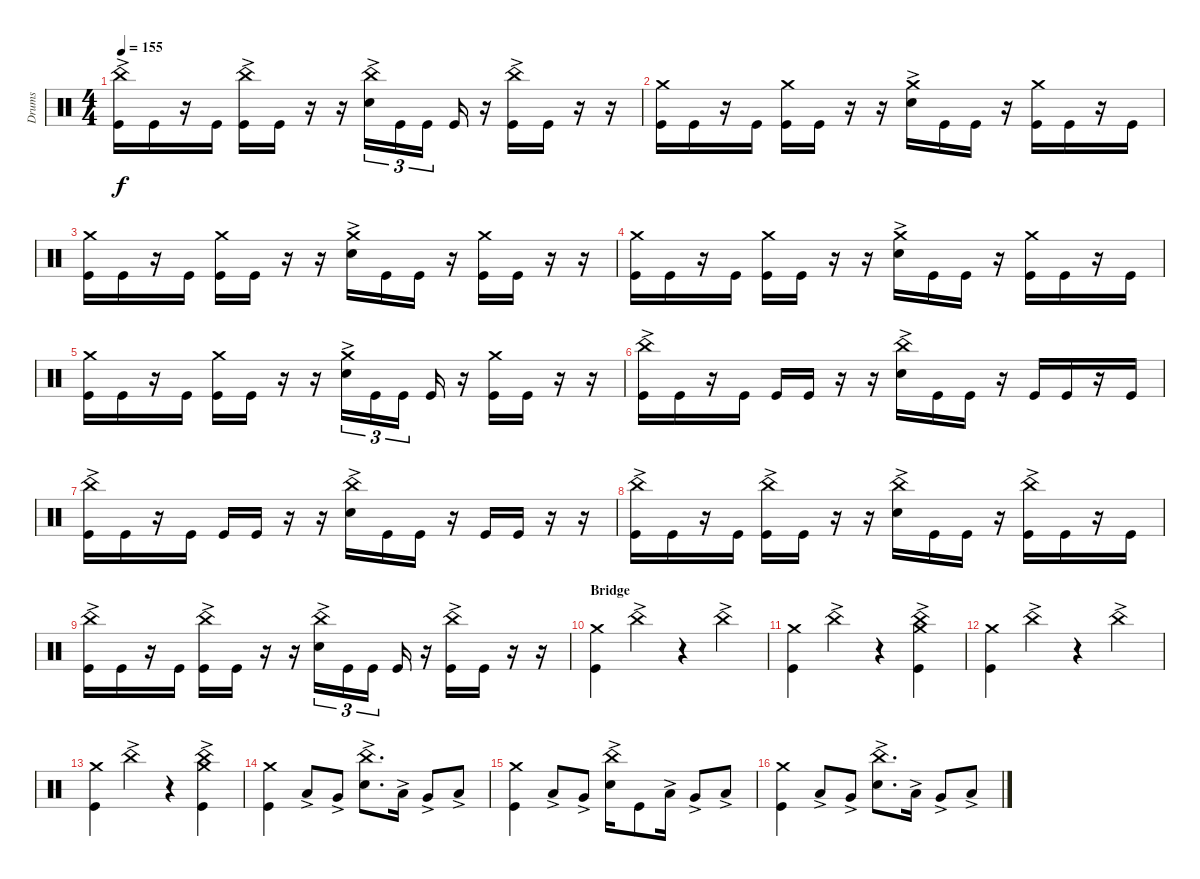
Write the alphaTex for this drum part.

\track ("Drums" "Drums") {instrument percussion}
\staff {score}
\articulation defaults
\ts (4 4)
\tempo 155
\clef neutral
\ks c
("Kick (hit)" "China (hit)"{ac}).16{dy f} "Kick (hit)".16 r.16 "Kick (hit)".16 ("Kick (hit)" "China (hit)"{ac}).16 "Kick (hit)".16 r.16 r.16 ("Snare (hit) 2"{ac} "China (hit)"{ac}).16{tu (3 2)} "Kick (hit)".16{tu (3 2)} "Kick (hit)".16{tu (3 2)} "Kick (hit)".16 r.16 ("Kick (hit)" "China (hit)"{ac}).16 "Kick (hit)".16 r.16 r.16 |
("Crash medium (hit)" "Kick (hit)").16 "Kick (hit)".16 r.16 "Kick (hit)".16 ("Crash medium (hit)" "Kick (hit)").16 "Kick (hit)".16 r.16 r.16 ("Crash medium (hit)" "Snare (hit) 2"{ac}).16 "Kick (hit)".16 "Kick (hit)".16 r.16 ("Crash medium (hit)" "Kick (hit)").16 "Kick (hit)".16 r.16 "Kick (hit)".16 |
("Crash medium (hit)" "Kick (hit)").16 "Kick (hit)".16 r.16 "Kick (hit)".16 ("Crash medium (hit)" "Kick (hit)").16 "Kick (hit)".16 r.16 r.16 ("Crash medium (hit)" "Snare (hit) 2"{ac}).16 "Kick (hit)".16 "Kick (hit)".16 r.16 ("Crash medium (hit)" "Kick (hit)").16 "Kick (hit)".16 r.16 r.16 |
("Crash medium (hit)" "Kick (hit)").16 "Kick (hit)".16 r.16 "Kick (hit)".16 ("Crash medium (hit)" "Kick (hit)").16 "Kick (hit)".16 r.16 r.16 ("Crash medium (hit)" "Snare (hit) 2"{ac}).16 "Kick (hit)".16 "Kick (hit)".16 r.16 ("Crash medium (hit)" "Kick (hit)").16 "Kick (hit)".16 r.16 "Kick (hit)".16 |
("Crash medium (hit)" "Kick (hit)").16 "Kick (hit)".16 r.16 "Kick (hit)".16 ("Crash medium (hit)" "Kick (hit)").16 "Kick (hit)".16 r.16 r.16 ("Crash medium (hit)" "Snare (hit) 2"{ac}).16{tu (3 2)} "Kick (hit)".16{tu (3 2)} "Kick (hit)".16{tu (3 2)} "Kick (hit)".16 r.16 ("Kick (hit)" "Crash medium (hit)").16 "Kick (hit)".16 r.16 r.16 |
("Kick (hit)" "China (hit)"{ac}).16 "Kick (hit)".16 r.16 "Kick (hit)".16 "Kick (hit)".16 "Kick (hit)".16 r.16 r.16 ("Snare (hit) 2"{ac} "China (hit)"{ac}).16 "Kick (hit)".16 "Kick (hit)".16 r.16 "Kick (hit)".16 "Kick (hit)".16 r.16 "Kick (hit)".16 |
("Kick (hit)" "China (hit)"{ac}).16 "Kick (hit)".16 r.16 "Kick (hit)".16 "Kick (hit)".16 "Kick (hit)".16 r.16 r.16 ("Snare (hit) 2"{ac} "China (hit)"{ac}).16 "Kick (hit)".16 "Kick (hit)".16 r.16 "Kick (hit)".16 "Kick (hit)".16 r.16 r.16 |
("Kick (hit)" "China (hit)"{ac}).16 "Kick (hit)".16 r.16 "Kick (hit)".16 ("Kick (hit)" "China (hit)"{ac}).16 "Kick (hit)".16 r.16 r.16 ("Snare (hit) 2"{ac} "China (hit)"{ac}).16 "Kick (hit)".16 "Kick (hit)".16 r.16 ("Kick (hit)" "China (hit)"{ac}).16 "Kick (hit)".16 r.16 "Kick (hit)".16 |
("Kick (hit)" "China (hit)"{ac}).16 "Kick (hit)".16 r.16 "Kick (hit)".16 ("Kick (hit)" "China (hit)"{ac}).16 "Kick (hit)".16 r.16 r.16 ("Snare (hit) 2"{ac} "China (hit)"{ac}).16{tu (3 2)} "Kick (hit)".16{tu (3 2)} "Kick (hit)".16{tu (3 2)} "Kick (hit)".16 r.16 ("Kick (hit)" "China (hit)"{ac}).16 "Kick (hit)".16 r.16 r.16 |
\section ("" "Bridge")
("Kick (hit)" "Crash medium (hit)").4 "China (hit)"{ac}.4 r.4 "China (hit)"{ac}.4 |
("Crash medium (hit)" "Kick (hit)").4 "China (hit)"{ac}.4 r.4 ("China (hit)"{ac} "Kick (hit)" "Crash medium (hit)").4 |
("Crash medium (hit)" "Kick (hit)").4 "China (hit)"{ac}.4 r.4 "China (hit)"{ac}.4 |
("Crash medium (hit)" "Kick (hit)").4 "China (hit)"{ac}.4 r.4 ("China (hit)"{ac} "Kick (hit)" "Crash medium (hit)").4 |
("Kick (hit)" "Crash medium (hit)").4 "Low Tom (hit)"{ac}.8 "Very Low Tom (hit)"{ac}.8 ("Snare (hit) 2"{ac} "China (hit)"{ac}).8{d} "Low Tom (hit)"{ac}.16 "Very Low Tom (hit)"{ac}.8 "Low Floor Tom (hit)"{ac}.8 |
("Kick (hit)" "Crash medium (hit)").4 "Low Tom (hit)"{ac}.8 "Very Low Tom (hit)"{ac}.8 ("Snare (hit) 2"{ac} "China (hit)"{ac}).16 "Kick (hit)".8 "Low Tom (hit)"{ac}.16 "Very Low Tom (hit)"{ac}.8 "Low Floor Tom (hit)"{ac}.8 |
("Kick (hit)" "Crash medium (hit)").4 "Low Tom (hit)"{ac}.8 "Very Low Tom (hit)"{ac}.8 ("Snare (hit) 2"{ac} "China (hit)"{ac}).8{d} "Low Tom (hit)"{ac}.16 "Very Low Tom (hit)"{ac}.8 "Low Floor Tom (hit)"{ac}.8
